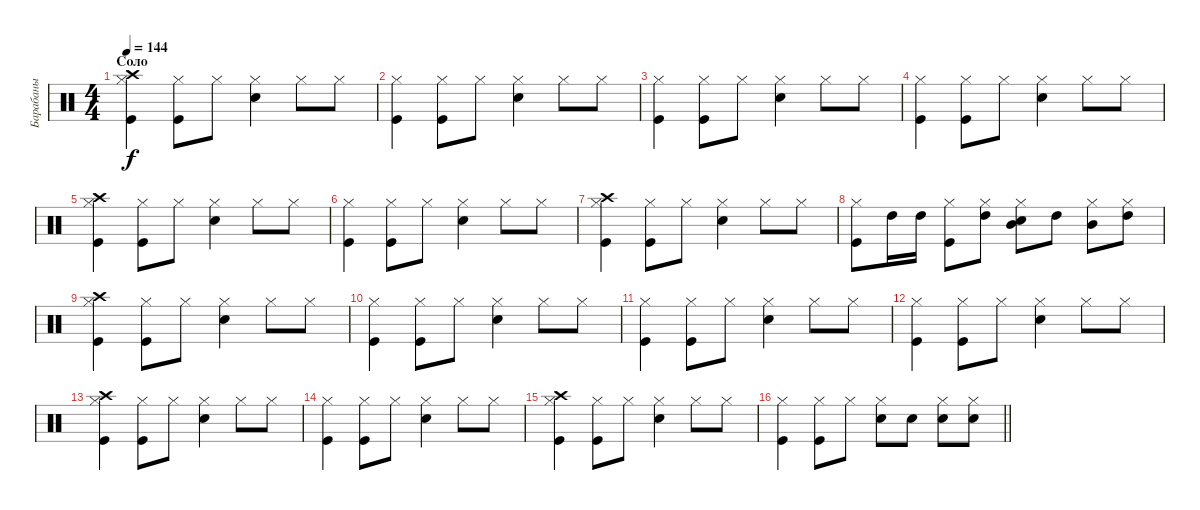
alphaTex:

\track ("Барабаны" "Барабаны") {instrument percussion}
\staff {score}
\articulation defaults
\ts (4 4)
\section ("" "Соло")
\tempo 144
\clef neutral
\ks c
("Kick (hit)" "Hi-Hat (closed)" "Crash high (hit)").4{dy f} ("Kick (hit)" "Hi-Hat (closed)").8 "Hi-Hat (closed)".8 ("Snare (hit) 2" "Hi-Hat (closed)").4 "Hi-Hat (closed)".8 "Hi-Hat (closed)".8 |
("Kick (hit)" "Hi-Hat (closed)").4 ("Kick (hit)" "Hi-Hat (closed)").8 "Hi-Hat (closed)".8 ("Snare (hit) 2" "Hi-Hat (closed)").4 "Hi-Hat (closed)".8 "Hi-Hat (closed)".8 |
("Kick (hit)" "Hi-Hat (closed)").4 ("Kick (hit)" "Hi-Hat (closed)").8 "Hi-Hat (closed)".8 ("Snare (hit) 2" "Hi-Hat (closed)").4 "Hi-Hat (closed)".8 "Hi-Hat (closed)".8 |
("Kick (hit)" "Hi-Hat (closed)").4 ("Kick (hit)" "Hi-Hat (closed)").8 "Hi-Hat (closed)".8 ("Snare (hit) 2" "Hi-Hat (closed)").4 "Hi-Hat (closed)".8 "Hi-Hat (closed)".8 |
("Kick (hit)" "Hi-Hat (closed)" "Crash high (hit)").4 ("Kick (hit)" "Hi-Hat (closed)").8 "Hi-Hat (closed)".8 ("Snare (hit) 2" "Hi-Hat (closed)").4 "Hi-Hat (closed)".8 "Hi-Hat (closed)".8 |
("Kick (hit)" "Hi-Hat (closed)").4 ("Kick (hit)" "Hi-Hat (closed)").8 "Hi-Hat (closed)".8 ("Snare (hit) 2" "Hi-Hat (closed)").4 "Hi-Hat (closed)".8 "Hi-Hat (closed)".8 |
("Kick (hit)" "Hi-Hat (closed)" "Crash high (hit)").4 ("Kick (hit)" "Hi-Hat (closed)").8 "Hi-Hat (closed)".8 ("Snare (hit) 2" "Hi-Hat (closed)").4 "Hi-Hat (closed)".8 "Hi-Hat (closed)".8 |
("Kick (hit)" "Hi-Hat (closed)").8 "High Tom (hit)".16 "High Tom (hit)".16 ("Kick (hit)" "Hi-Hat (closed)").8 ("Hi-Hat (closed)" "High Tom (hit)").8 ("Snare (hit) 2" "Hi-Hat (closed)" "Mid Tom (hit)").8 "High Tom (hit)".8 ("Hi-Hat (closed)" "Mid Tom (hit)").8 ("Hi-Hat (closed)" "High Tom (hit)").8 |
("Kick (hit)" "Hi-Hat (closed)" "Crash high (hit)").4 ("Kick (hit)" "Hi-Hat (closed)").8 "Hi-Hat (closed)".8 ("Snare (hit) 2" "Hi-Hat (closed)").4 "Hi-Hat (closed)".8 "Hi-Hat (closed)".8 |
("Kick (hit)" "Hi-Hat (closed)").4 ("Kick (hit)" "Hi-Hat (closed)").8 "Hi-Hat (closed)".8 ("Snare (hit) 2" "Hi-Hat (closed)").4 "Hi-Hat (closed)".8 "Hi-Hat (closed)".8 |
("Kick (hit)" "Hi-Hat (closed)").4 ("Kick (hit)" "Hi-Hat (closed)").8 "Hi-Hat (closed)".8 ("Snare (hit) 2" "Hi-Hat (closed)").4 "Hi-Hat (closed)".8 "Hi-Hat (closed)".8 |
("Kick (hit)" "Hi-Hat (closed)").4 ("Kick (hit)" "Hi-Hat (closed)").8 "Hi-Hat (closed)".8 ("Snare (hit) 2" "Hi-Hat (closed)").4 "Hi-Hat (closed)".8 "Hi-Hat (closed)".8 |
("Kick (hit)" "Hi-Hat (closed)" "Crash high (hit)").4 ("Kick (hit)" "Hi-Hat (closed)").8 "Hi-Hat (closed)".8 ("Snare (hit) 2" "Hi-Hat (closed)").4 "Hi-Hat (closed)".8 "Hi-Hat (closed)".8 |
("Kick (hit)" "Hi-Hat (closed)").4 ("Kick (hit)" "Hi-Hat (closed)").8 "Hi-Hat (closed)".8 ("Snare (hit) 2" "Hi-Hat (closed)").4 "Hi-Hat (closed)".8 "Hi-Hat (closed)".8 |
("Kick (hit)" "Hi-Hat (closed)" "Crash high (hit)").4 ("Kick (hit)" "Hi-Hat (closed)").8 "Hi-Hat (closed)".8 ("Snare (hit) 2" "Hi-Hat (closed)").4 "Hi-Hat (closed)".8 "Hi-Hat (closed)".8 |
\barLineRight lightlight
("Kick (hit)" "Hi-Hat (closed)").4 ("Kick (hit)" "Hi-Hat (closed)").8 "Hi-Hat (closed)".8 ("Snare (hit) 2" "Hi-Hat (closed)").8 "Snare (hit) 2".8 ("Snare (hit) 2" "Hi-Hat (closed)").8 ("Snare (hit) 2" "Hi-Hat (closed)").8
